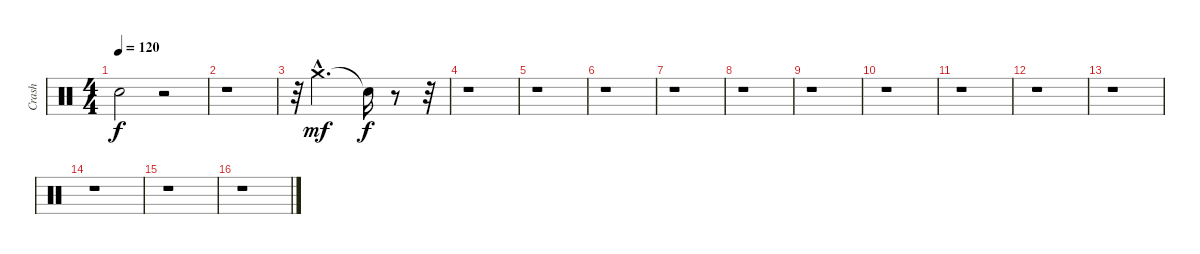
\track ("Crash" "Crash") {instrument percussion}
\staff {score}
\articulation defaults
\ts (4 4)
\tempo 120
\clef neutral
\ks c "Snare (hit)"{t}.2{dy f}
r.2 |
r.1 |
r.32 "Crash medium (hit)"{hac}.2{d dy mf} "Snare (hit)"{t}.16{dy f} r.8 r.32 |
r.1 |
r.1 |
r.1 |
r.1 |
r.1 |
r.1 |
r.1 |
r.1 |
r.1 |
r.1 |
r.1 |
r.1 |
r.1
